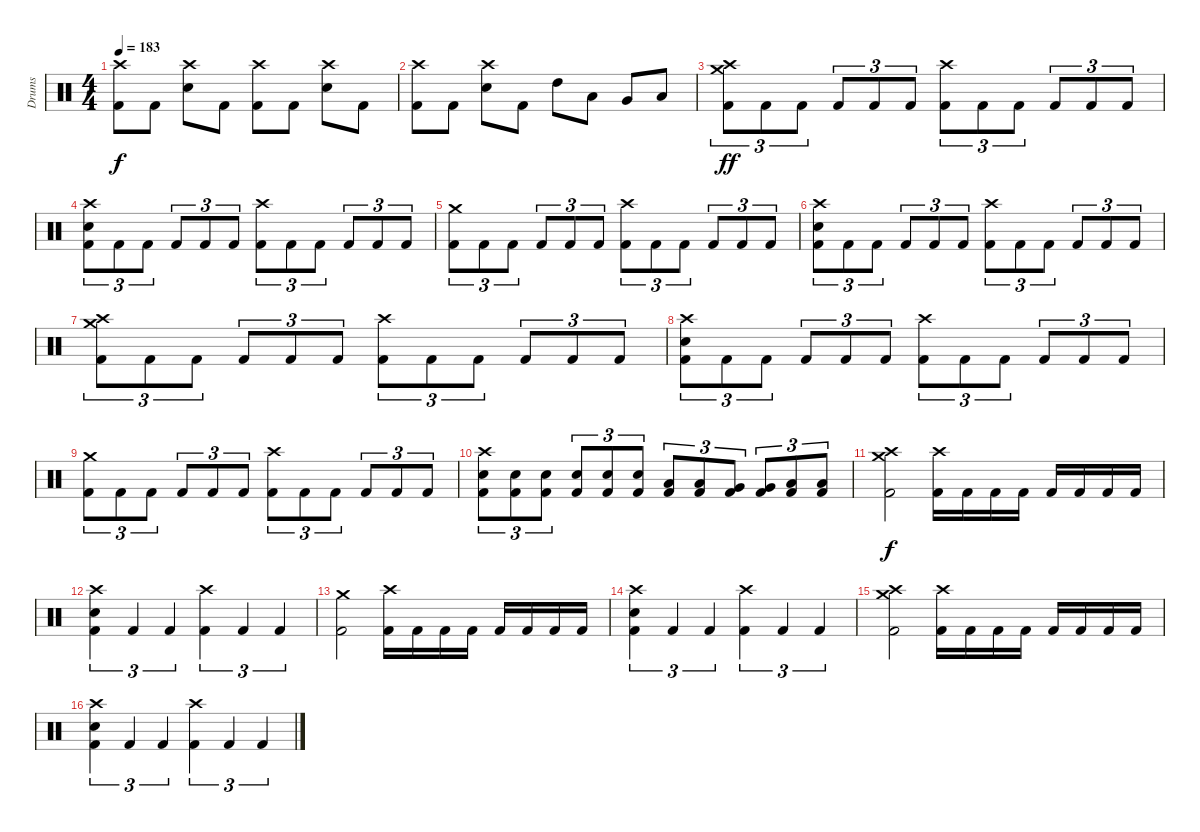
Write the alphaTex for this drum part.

\track ("Drums" "Drums") {instrument percussion}
\staff {score}
\articulation defaults
\ts (4 4)
\tempo 183
\clef neutral
\ks c
("Crash high (hit)" "Kick (hit) 2").8{dy f} "Kick (hit) 2".8 ("Crash high (hit)" "Electric Snare (hit)").8 "Kick (hit) 2".8 ("Crash high (hit)" "Kick (hit) 2").8 "Kick (hit) 2".8 ("Crash high (hit)" "Electric Snare (hit)").8 "Kick (hit) 2".8 |
("Crash high (hit)" "Kick (hit) 2").8 "Kick (hit) 2".8 ("Crash high (hit)" "Electric Snare (hit)").8 "Kick (hit) 2".8 "High Tom (hit)".8 "Low Tom (hit)".8 "Very Low Tom (hit)".8 "Low Floor Tom (hit)".8 |
("Crash medium (hit)" "Crash high (hit)" "Kick (hit) 2").8{tu (3 2) dy ff} "Kick (hit) 2".8{tu (3 2)} "Kick (hit) 2".8{tu (3 2)} "Kick (hit) 2".8{tu (3 2)} "Kick (hit) 2".8{tu (3 2)} "Kick (hit) 2".8{tu (3 2)} ("Crash high (hit)" "Kick (hit) 2").8{tu (3 2)} "Kick (hit) 2".8{tu (3 2)} "Kick (hit) 2".8{tu (3 2)} "Kick (hit) 2".8{tu (3 2)} "Kick (hit) 2".8{tu (3 2)} "Kick (hit) 2".8{tu (3 2)} |
("Crash high (hit)" "Electric Snare (hit)" "Kick (hit) 2").8{tu (3 2)} "Kick (hit) 2".8{tu (3 2)} "Kick (hit) 2".8{tu (3 2)} "Kick (hit) 2".8{tu (3 2)} "Kick (hit) 2".8{tu (3 2)} "Kick (hit) 2".8{tu (3 2)} ("Crash high (hit)" "Kick (hit) 2").8{tu (3 2)} "Kick (hit) 2".8{tu (3 2)} "Kick (hit) 2".8{tu (3 2)} "Kick (hit) 2".8{tu (3 2)} "Kick (hit) 2".8{tu (3 2)} "Kick (hit) 2".8{tu (3 2)} |
("Crash medium (hit)" "Kick (hit) 2").8{tu (3 2)} "Kick (hit) 2".8{tu (3 2)} "Kick (hit) 2".8{tu (3 2)} "Kick (hit) 2".8{tu (3 2)} "Kick (hit) 2".8{tu (3 2)} "Kick (hit) 2".8{tu (3 2)} ("Crash high (hit)" "Kick (hit) 2").8{tu (3 2)} "Kick (hit) 2".8{tu (3 2)} "Kick (hit) 2".8{tu (3 2)} "Kick (hit) 2".8{tu (3 2)} "Kick (hit) 2".8{tu (3 2)} "Kick (hit) 2".8{tu (3 2)} |
("Crash high (hit)" "Electric Snare (hit)" "Kick (hit) 2").8{tu (3 2)} "Kick (hit) 2".8{tu (3 2)} "Kick (hit) 2".8{tu (3 2)} "Kick (hit) 2".8{tu (3 2)} "Kick (hit) 2".8{tu (3 2)} "Kick (hit) 2".8{tu (3 2)} ("Crash high (hit)" "Kick (hit) 2").8{tu (3 2)} "Kick (hit) 2".8{tu (3 2)} "Kick (hit) 2".8{tu (3 2)} "Kick (hit) 2".8{tu (3 2)} "Kick (hit) 2".8{tu (3 2)} "Kick (hit) 2".8{tu (3 2)} |
("Crash medium (hit)" "Crash high (hit)" "Kick (hit) 2").8{tu (3 2)} "Kick (hit) 2".8{tu (3 2)} "Kick (hit) 2".8{tu (3 2)} "Kick (hit) 2".8{tu (3 2)} "Kick (hit) 2".8{tu (3 2)} "Kick (hit) 2".8{tu (3 2)} ("Crash high (hit)" "Kick (hit) 2").8{tu (3 2)} "Kick (hit) 2".8{tu (3 2)} "Kick (hit) 2".8{tu (3 2)} "Kick (hit) 2".8{tu (3 2)} "Kick (hit) 2".8{tu (3 2)} "Kick (hit) 2".8{tu (3 2)} |
("Crash high (hit)" "Electric Snare (hit)" "Kick (hit) 2").8{tu (3 2)} "Kick (hit) 2".8{tu (3 2)} "Kick (hit) 2".8{tu (3 2)} "Kick (hit) 2".8{tu (3 2)} "Kick (hit) 2".8{tu (3 2)} "Kick (hit) 2".8{tu (3 2)} ("Crash high (hit)" "Kick (hit) 2").8{tu (3 2)} "Kick (hit) 2".8{tu (3 2)} "Kick (hit) 2".8{tu (3 2)} "Kick (hit) 2".8{tu (3 2)} "Kick (hit) 2".8{tu (3 2)} "Kick (hit) 2".8{tu (3 2)} |
("Crash medium (hit)" "Kick (hit) 2").8{tu (3 2)} "Kick (hit) 2".8{tu (3 2)} "Kick (hit) 2".8{tu (3 2)} "Kick (hit) 2".8{tu (3 2)} "Kick (hit) 2".8{tu (3 2)} "Kick (hit) 2".8{tu (3 2)} ("Crash high (hit)" "Kick (hit) 2").8{tu (3 2)} "Kick (hit) 2".8{tu (3 2)} "Kick (hit) 2".8{tu (3 2)} "Kick (hit) 2".8{tu (3 2)} "Kick (hit) 2".8{tu (3 2)} "Kick (hit) 2".8{tu (3 2)} |
("Crash high (hit)" "Electric Snare (hit)" "Kick (hit) 2").8{tu (3 2)} ("Electric Snare (hit)" "Kick (hit) 2").8{tu (3 2)} ("Electric Snare (hit)" "Kick (hit) 2").8{tu (3 2)} ("Electric Snare (hit)" "Kick (hit) 2").8{tu (3 2)} ("Electric Snare (hit)" "Kick (hit) 2").8{tu (3 2)} ("Electric Snare (hit)" "Kick (hit) 2").8{tu (3 2)} ("Low Tom (hit)" "Kick (hit) 2").8{tu (3 2)} ("Low Tom (hit)" "Kick (hit) 2").8{tu (3 2)} ("Very Low Tom (hit)" "Kick (hit) 2").8{tu (3 2)} ("Very Low Tom (hit)" "Kick (hit) 2").8{tu (3 2)} ("Low Floor Tom (hit)" "Kick (hit) 2").8{tu (3 2)} ("Low Floor Tom (hit)" "Kick (hit) 2").8{tu (3 2)} |
("Crash medium (hit)" "Crash high (hit)" "Kick (hit) 2").2{dy f} ("Crash high (hit)" "Kick (hit) 2").16 "Kick (hit) 2".16 "Kick (hit) 2".16 "Kick (hit) 2".16 "Kick (hit) 2".16 "Kick (hit) 2".16 "Kick (hit) 2".16 "Kick (hit) 2".16 |
("Crash high (hit)" "Electric Snare (hit)" "Kick (hit) 2").4{tu (3 2)} "Kick (hit) 2".4{tu (3 2)} "Kick (hit) 2".4{tu (3 2)} ("Crash high (hit)" "Kick (hit) 2").4{tu (3 2)} "Kick (hit) 2".4{tu (3 2)} "Kick (hit) 2".4{tu (3 2)} |
("Crash medium (hit)" "Kick (hit) 2").2 ("Crash high (hit)" "Kick (hit) 2").16 "Kick (hit) 2".16 "Kick (hit) 2".16 "Kick (hit) 2".16 "Kick (hit) 2".16 "Kick (hit) 2".16 "Kick (hit) 2".16 "Kick (hit) 2".16 |
("Crash high (hit)" "Electric Snare (hit)" "Kick (hit) 2").4{tu (3 2)} "Kick (hit) 2".4{tu (3 2)} "Kick (hit) 2".4{tu (3 2)} ("Crash high (hit)" "Kick (hit) 2").4{tu (3 2)} "Kick (hit) 2".4{tu (3 2)} "Kick (hit) 2".4{tu (3 2)} |
("Crash medium (hit)" "Crash high (hit)" "Kick (hit) 2").2 ("Crash high (hit)" "Kick (hit) 2").16 "Kick (hit) 2".16 "Kick (hit) 2".16 "Kick (hit) 2".16 "Kick (hit) 2".16 "Kick (hit) 2".16 "Kick (hit) 2".16 "Kick (hit) 2".16 |
("Crash high (hit)" "Electric Snare (hit)" "Kick (hit) 2").4{tu (3 2)} "Kick (hit) 2".4{tu (3 2)} "Kick (hit) 2".4{tu (3 2)} ("Crash high (hit)" "Kick (hit) 2").4{tu (3 2)} "Kick (hit) 2".4{tu (3 2)} "Kick (hit) 2".4{tu (3 2)}
